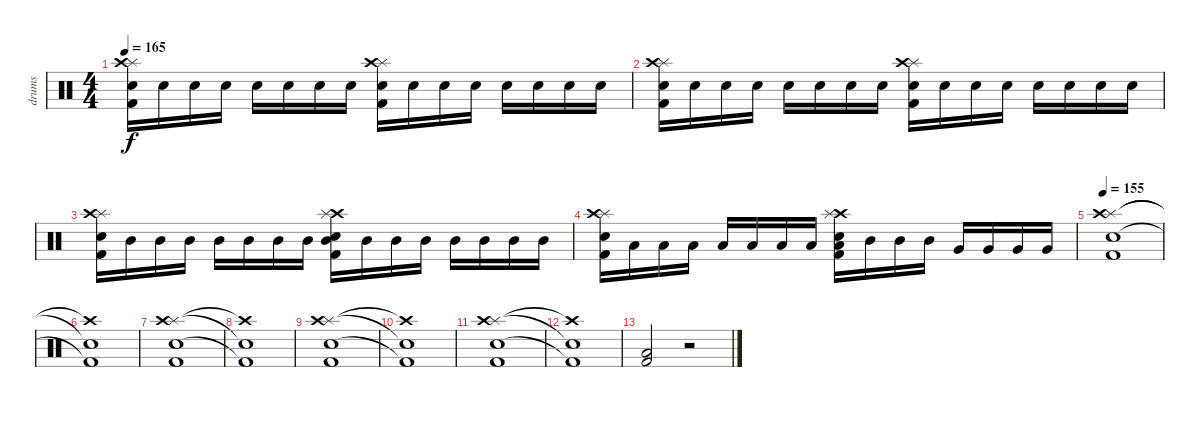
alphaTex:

\track ("drums" "drums") {instrument percussion}
\staff {score}
\articulation defaults
\ts (4 4)
\tempo 165
\clef neutral
\ks c
("Splash (hit)" "Crash high (hit)" "Electric Snare (hit)" "Kick (hit) 2").16{dy f} "Electric Snare (hit)".16 "Electric Snare (hit)".16 "Electric Snare (hit)".16 "Electric Snare (hit)".16 "Electric Snare (hit)".16 "Electric Snare (hit)".16 "Electric Snare (hit)".16 ("Splash (hit)" "Crash high (hit)" "Kick (hit) 2" "Electric Snare (hit)").16 "Electric Snare (hit)".16 "Electric Snare (hit)".16 "Electric Snare (hit)".16 "Electric Snare (hit)".16 "Electric Snare (hit)".16 "Electric Snare (hit)".16 "Electric Snare (hit)".16 |
("Splash (hit)" "Crash high (hit)" "Electric Snare (hit)" "Kick (hit) 2").16 "Electric Snare (hit)".16 "Electric Snare (hit)".16 "Electric Snare (hit)".16 "Electric Snare (hit)".16 "Electric Snare (hit)".16 "Electric Snare (hit)".16 "Electric Snare (hit)".16 ("Splash (hit)" "Crash high (hit)" "Kick (hit) 2" "Electric Snare (hit)").16 "Electric Snare (hit)".16 "Electric Snare (hit)".16 "Electric Snare (hit)".16 "Electric Snare (hit)".16 "Electric Snare (hit)".16 "Electric Snare (hit)".16 "Electric Snare (hit)".16 |
("Splash (hit)" "Crash high (hit)" "Electric Snare (hit)" "Kick (hit) 2").16 "Mid Tom (hit)".16 "Mid Tom (hit)".16 "Mid Tom (hit)".16 "Mid Tom (hit)".16 "Mid Tom (hit)".16 "Mid Tom (hit)".16 "Mid Tom (hit)".16 ("Crash high (hit)" "Electric Snare (hit)" "Splash (hit)" "Kick (hit) 2" "Mid Tom (hit)").16 "Mid Tom (hit)".16 "Mid Tom (hit)".16 "Mid Tom (hit)".16 "Mid Tom (hit)".16 "Mid Tom (hit)".16 "Mid Tom (hit)".16 "Mid Tom (hit)".16 |
("Splash (hit)" "Crash high (hit)" "Electric Snare (hit)" "Kick (hit) 2").16 "Low Tom (hit)".16 "Low Tom (hit)".16 "Low Tom (hit)".16 "Low Tom (hit)".16 "Low Tom (hit)".16 "Low Tom (hit)".16 "Low Tom (hit)".16 ("Crash high (hit)" "Electric Snare (hit)" "Splash (hit)" "Kick (hit) 2" "Low Tom (hit)").16 "Mid Tom (hit)".16 "Mid Tom (hit)".16 "Mid Tom (hit)".16 "Very Low Tom (hit)".16 "Very Low Tom (hit)".16 "Very Low Tom (hit)".16 "Very Low Tom (hit)".16 |
\tempo 155
("Splash (hit)" "Crash high (hit)" "Electric Snare (hit)" "Kick (hit) 2").1 |
("Crash high (hit)"{t} "Electric Snare (hit)"{t} "Kick (hit) 2"{t}).1 |
("Splash (hit)" "Crash high (hit)" "Electric Snare (hit)" "Kick (hit) 2").1 |
("Crash high (hit)"{t} "Electric Snare (hit)"{t} "Kick (hit) 2"{t}).1 |
("Splash (hit)" "Crash high (hit)" "Electric Snare (hit)" "Kick (hit) 2").1 |
("Crash high (hit)"{t} "Electric Snare (hit)"{t} "Kick (hit) 2"{t}).1 |
("Splash (hit)" "Crash high (hit)" "Electric Snare (hit)" "Kick (hit) 2").1 |
("Crash high (hit)"{t} "Electric Snare (hit)"{t} "Kick (hit) 2"{t}).1 |
("Kick (hit) 2" "Low Tom (hit)").2 r.2
